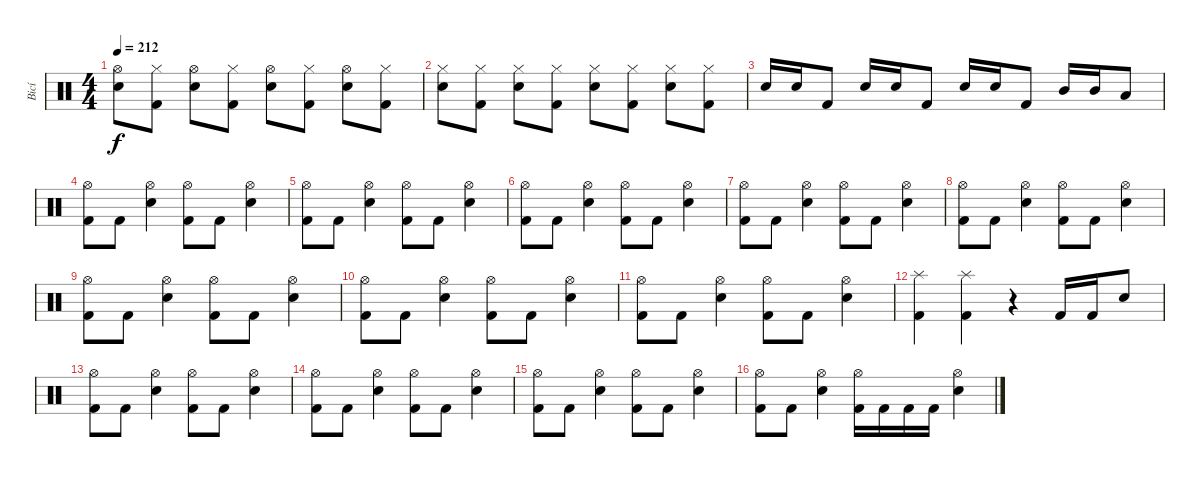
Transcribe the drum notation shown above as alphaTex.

\track ("Bicí" "Bicí") {instrument percussion}
\staff {score}
\articulation defaults
\ts (4 4)
\tempo 212
\clef neutral
\ks c
("Hi-Hat (open)" "Snare (hit) 2").8{dy f} ("Hi-Hat (closed)" "Kick (hit) 2").8 ("Hi-Hat (open)" "Snare (hit) 2").8 ("Hi-Hat (closed)" "Kick (hit) 2").8 ("Hi-Hat (open)" "Snare (hit) 2").8 ("Hi-Hat (closed)" "Kick (hit) 2").8 ("Hi-Hat (open)" "Snare (hit) 2").8 ("Hi-Hat (closed)" "Kick (hit) 2").8 |
("Hi-Hat (closed)" "Snare (hit) 2").8 ("Hi-Hat (closed)" "Kick (hit) 2").8 ("Hi-Hat (closed)" "Snare (hit) 2").8 ("Hi-Hat (closed)" "Kick (hit) 2").8 ("Hi-Hat (closed)" "Snare (hit) 2").8 ("Hi-Hat (closed)" "Kick (hit) 2").8 ("Hi-Hat (closed)" "Snare (hit) 2").8 ("Hi-Hat (closed)" "Kick (hit) 2").8 |
"Snare (hit) 2".16 "Snare (hit) 2".16 "Kick (hit) 2".8 "Snare (hit) 2".16 "Snare (hit) 2".16 "Kick (hit) 2".8 "Snare (hit) 2".16 "Snare (hit) 2".16 "Kick (hit) 2".8 "Mid Tom (hit)".16 "Mid Tom (hit)".16 "Low Tom (hit)".8 |
("Kick (hit) 2" "Hi-Hat (open)").8 "Kick (hit) 2".8 ("Snare (hit) 2" "Hi-Hat (open)").4 ("Kick (hit) 2" "Hi-Hat (open)").8 "Kick (hit) 2".8 ("Snare (hit) 2" "Hi-Hat (open)").4 |
("Kick (hit) 2" "Hi-Hat (open)").8 "Kick (hit) 2".8 ("Snare (hit) 2" "Hi-Hat (open)").4 ("Kick (hit) 2" "Hi-Hat (open)").8 "Kick (hit) 2".8 ("Snare (hit) 2" "Hi-Hat (open)").4 |
("Kick (hit) 2" "Hi-Hat (open)").8 "Kick (hit) 2".8 ("Snare (hit) 2" "Hi-Hat (open)").4 ("Kick (hit) 2" "Hi-Hat (open)").8 "Kick (hit) 2".8 ("Snare (hit) 2" "Hi-Hat (open)").4 |
("Kick (hit) 2" "Hi-Hat (open)").8 "Kick (hit) 2".8 ("Snare (hit) 2" "Hi-Hat (open)").4 ("Kick (hit) 2" "Hi-Hat (open)").8 "Kick (hit) 2".8 ("Snare (hit) 2" "Hi-Hat (open)").4 |
("Kick (hit) 2" "Hi-Hat (open)").8 "Kick (hit) 2".8 ("Snare (hit) 2" "Hi-Hat (open)").4 ("Kick (hit) 2" "Hi-Hat (open)").8 "Kick (hit) 2".8 ("Snare (hit) 2" "Hi-Hat (open)").4 |
("Kick (hit) 2" "Hi-Hat (open)").8 "Kick (hit) 2".8 ("Snare (hit) 2" "Hi-Hat (open)").4 ("Kick (hit) 2" "Hi-Hat (open)").8 "Kick (hit) 2".8 ("Snare (hit) 2" "Hi-Hat (open)").4 |
("Kick (hit) 2" "Hi-Hat (open)").8 "Kick (hit) 2".8 ("Snare (hit) 2" "Hi-Hat (open)").4 ("Kick (hit) 2" "Hi-Hat (open)").8 "Kick (hit) 2".8 ("Snare (hit) 2" "Hi-Hat (open)").4 |
("Kick (hit) 2" "Hi-Hat (open)").8 "Kick (hit) 2".8 ("Snare (hit) 2" "Hi-Hat (open)").4 ("Kick (hit) 2" "Hi-Hat (open)").8 "Kick (hit) 2".8 ("Snare (hit) 2" "Hi-Hat (open)").4 |
("Kick (hit) 2" "Splash (hit)").4 ("Kick (hit) 2" "Splash (hit)").4 r.4 "Kick (hit) 2".16 "Kick (hit) 2".16 "Snare (hit) 2".8 |
("Kick (hit) 2" "Hi-Hat (open)").8 "Kick (hit) 2".8 ("Snare (hit) 2" "Hi-Hat (open)").4 ("Kick (hit) 2" "Hi-Hat (open)").8 "Kick (hit) 2".8 ("Snare (hit) 2" "Hi-Hat (open)").4 |
("Kick (hit) 2" "Hi-Hat (open)").8 "Kick (hit) 2".8 ("Snare (hit) 2" "Hi-Hat (open)").4 ("Kick (hit) 2" "Hi-Hat (open)").8 "Kick (hit) 2".8 ("Snare (hit) 2" "Hi-Hat (open)").4 |
("Kick (hit) 2" "Hi-Hat (open)").8 "Kick (hit) 2".8 ("Snare (hit) 2" "Hi-Hat (open)").4 ("Kick (hit) 2" "Hi-Hat (open)").8 "Kick (hit) 2".8 ("Snare (hit) 2" "Hi-Hat (open)").4 |
("Kick (hit) 2" "Hi-Hat (open)").8 "Kick (hit) 2".8 ("Snare (hit) 2" "Hi-Hat (open)").4 ("Kick (hit) 2" "Hi-Hat (open)").16 "Kick (hit) 2".16 "Kick (hit) 2".16 "Kick (hit) 2".16 ("Snare (hit) 2" "Hi-Hat (open)").4
